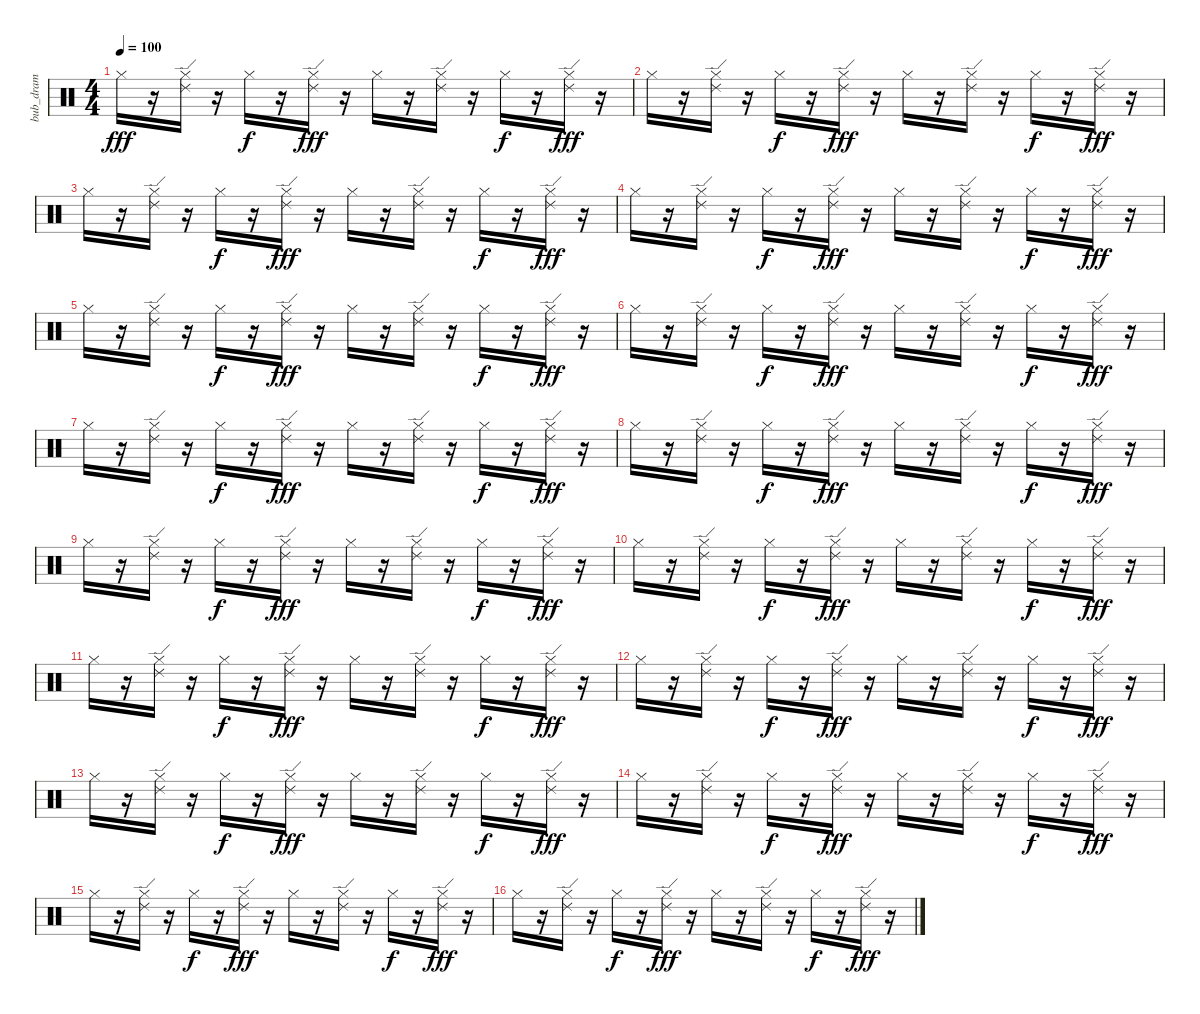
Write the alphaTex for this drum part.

\track ("bub_dram" "bub_dram") {instrument percussion}
\staff {score}
\articulation defaults
\ts (4 4)
\tempo 100
\clef neutral
\ks c "Hi-Hat (closed)".16{dy fff}
r.16 ("Ride (edge) 2" "Hi-Hat (closed)").16 r.16 "Hi-Hat (closed)".16{dy f} r.16 ("Ride (edge) 2" "Hi-Hat (closed)").16{dy fff} r.16 "Hi-Hat (closed)".16 r.16 ("Ride (edge) 2" "Hi-Hat (closed)").16 r.16 "Hi-Hat (closed)".16{dy f} r.16 ("Ride (edge) 2" "Hi-Hat (closed)").16{dy fff} r.16 |
"Hi-Hat (closed)".16 r.16 ("Ride (edge) 2" "Hi-Hat (closed)").16 r.16 "Hi-Hat (closed)".16{dy f} r.16 ("Ride (edge) 2" "Hi-Hat (closed)").16{dy fff} r.16 "Hi-Hat (closed)".16 r.16 ("Ride (edge) 2" "Hi-Hat (closed)").16 r.16 "Hi-Hat (closed)".16{dy f} r.16 ("Ride (edge) 2" "Hi-Hat (closed)").16{dy fff} r.16 |
"Hi-Hat (closed)".16 r.16 ("Ride (edge) 2" "Hi-Hat (closed)").16 r.16 "Hi-Hat (closed)".16{dy f} r.16 ("Ride (edge) 2" "Hi-Hat (closed)").16{dy fff} r.16 "Hi-Hat (closed)".16 r.16 ("Ride (edge) 2" "Hi-Hat (closed)").16 r.16 "Hi-Hat (closed)".16{dy f} r.16 ("Ride (edge) 2" "Hi-Hat (closed)").16{dy fff} r.16 |
"Hi-Hat (closed)".16 r.16 ("Ride (edge) 2" "Hi-Hat (closed)").16 r.16 "Hi-Hat (closed)".16{dy f} r.16 ("Ride (edge) 2" "Hi-Hat (closed)").16{dy fff} r.16 "Hi-Hat (closed)".16 r.16 ("Ride (edge) 2" "Hi-Hat (closed)").16 r.16 "Hi-Hat (closed)".16{dy f} r.16 ("Ride (edge) 2" "Hi-Hat (closed)").16{dy fff} r.16 |
"Hi-Hat (closed)".16 r.16 ("Hi-Hat (closed)" "Ride (edge) 2").16 r.16 "Hi-Hat (closed)".16{dy f} r.16 ("Hi-Hat (closed)" "Ride (edge) 2").16{dy fff} r.16 "Hi-Hat (closed)".16 r.16 ("Hi-Hat (closed)" "Ride (edge) 2").16 r.16 "Hi-Hat (closed)".16{dy f} r.16 ("Hi-Hat (closed)" "Ride (edge) 2").16{dy fff} r.16 |
"Hi-Hat (closed)".16 r.16 ("Hi-Hat (closed)" "Ride (edge) 2").16 r.16 "Hi-Hat (closed)".16{dy f} r.16 ("Hi-Hat (closed)" "Ride (edge) 2").16{dy fff} r.16 "Hi-Hat (closed)".16 r.16 ("Hi-Hat (closed)" "Ride (edge) 2").16 r.16 "Hi-Hat (closed)".16{dy f} r.16 ("Hi-Hat (closed)" "Ride (edge) 2").16{dy fff} r.16 |
"Hi-Hat (closed)".16 r.16 ("Hi-Hat (closed)" "Ride (edge) 2").16 r.16 "Hi-Hat (closed)".16{dy f} r.16 ("Hi-Hat (closed)" "Ride (edge) 2").16{dy fff} r.16 "Hi-Hat (closed)".16 r.16 ("Hi-Hat (closed)" "Ride (edge) 2").16 r.16 "Hi-Hat (closed)".16{dy f} r.16 ("Hi-Hat (closed)" "Ride (edge) 2").16{dy fff} r.16 |
"Hi-Hat (closed)".16 r.16 ("Ride (edge) 2" "Hi-Hat (closed)").16 r.16 "Hi-Hat (closed)".16{dy f} r.16 ("Ride (edge) 2" "Hi-Hat (closed)").16{dy fff} r.16 "Hi-Hat (closed)".16 r.16 ("Ride (edge) 2" "Hi-Hat (closed)").16 r.16 "Hi-Hat (closed)".16{dy f} r.16 ("Ride (edge) 2" "Hi-Hat (closed)").16{dy fff} r.16 |
"Hi-Hat (closed)".16 r.16 ("Ride (edge) 2" "Hi-Hat (closed)").16 r.16 "Hi-Hat (closed)".16{dy f} r.16 ("Ride (edge) 2" "Hi-Hat (closed)").16{dy fff} r.16 "Hi-Hat (closed)".16 r.16 ("Ride (edge) 2" "Hi-Hat (closed)").16 r.16 "Hi-Hat (closed)".16{dy f} r.16 ("Ride (edge) 2" "Hi-Hat (closed)").16{dy fff} r.16 |
"Hi-Hat (closed)".16 r.16 ("Ride (edge) 2" "Hi-Hat (closed)").16 r.16 "Hi-Hat (closed)".16{dy f} r.16 ("Ride (edge) 2" "Hi-Hat (closed)").16{dy fff} r.16 "Hi-Hat (closed)".16 r.16 ("Ride (edge) 2" "Hi-Hat (closed)").16 r.16 "Hi-Hat (closed)".16{dy f} r.16 ("Ride (edge) 2" "Hi-Hat (closed)").16{dy fff} r.16 |
"Hi-Hat (closed)".16 r.16 ("Ride (edge) 2" "Hi-Hat (closed)").16 r.16 "Hi-Hat (closed)".16{dy f} r.16 ("Ride (edge) 2" "Hi-Hat (closed)").16{dy fff} r.16 "Hi-Hat (closed)".16 r.16 ("Ride (edge) 2" "Hi-Hat (closed)").16 r.16 "Hi-Hat (closed)".16{dy f} r.16 ("Ride (edge) 2" "Hi-Hat (closed)").16{dy fff} r.16 |
"Hi-Hat (closed)".16 r.16 ("Ride (edge) 2" "Hi-Hat (closed)").16 r.16 "Hi-Hat (closed)".16{dy f} r.16 ("Ride (edge) 2" "Hi-Hat (closed)").16{dy fff} r.16 "Hi-Hat (closed)".16 r.16 ("Ride (edge) 2" "Hi-Hat (closed)").16 r.16 "Hi-Hat (closed)".16{dy f} r.16 ("Ride (edge) 2" "Hi-Hat (closed)").16{dy fff} r.16 |
"Hi-Hat (closed)".16 r.16 ("Ride (edge) 2" "Hi-Hat (closed)").16 r.16 "Hi-Hat (closed)".16{dy f} r.16 ("Ride (edge) 2" "Hi-Hat (closed)").16{dy fff} r.16 "Hi-Hat (closed)".16 r.16 ("Ride (edge) 2" "Hi-Hat (closed)").16 r.16 "Hi-Hat (closed)".16{dy f} r.16 ("Ride (edge) 2" "Hi-Hat (closed)").16{dy fff} r.16 |
"Hi-Hat (closed)".16 r.16 ("Ride (edge) 2" "Hi-Hat (closed)").16 r.16 "Hi-Hat (closed)".16{dy f} r.16 ("Ride (edge) 2" "Hi-Hat (closed)").16{dy fff} r.16 "Hi-Hat (closed)".16 r.16 ("Ride (edge) 2" "Hi-Hat (closed)").16 r.16 "Hi-Hat (closed)".16{dy f} r.16 ("Ride (edge) 2" "Hi-Hat (closed)").16{dy fff} r.16 |
"Hi-Hat (closed)".16 r.16 ("Ride (edge) 2" "Hi-Hat (closed)").16 r.16 "Hi-Hat (closed)".16{dy f} r.16 ("Ride (edge) 2" "Hi-Hat (closed)").16{dy fff} r.16 "Hi-Hat (closed)".16 r.16 ("Ride (edge) 2" "Hi-Hat (closed)").16 r.16 "Hi-Hat (closed)".16{dy f} r.16 ("Ride (edge) 2" "Hi-Hat (closed)").16{dy fff} r.16 |
"Hi-Hat (closed)".16 r.16 ("Ride (edge) 2" "Hi-Hat (closed)").16 r.16 "Hi-Hat (closed)".16{dy f} r.16 ("Ride (edge) 2" "Hi-Hat (closed)").16{dy fff} r.16 "Hi-Hat (closed)".16 r.16 ("Ride (edge) 2" "Hi-Hat (closed)").16 r.16 "Hi-Hat (closed)".16{dy f} r.16 ("Ride (edge) 2" "Hi-Hat (closed)").16{dy fff} r.16
